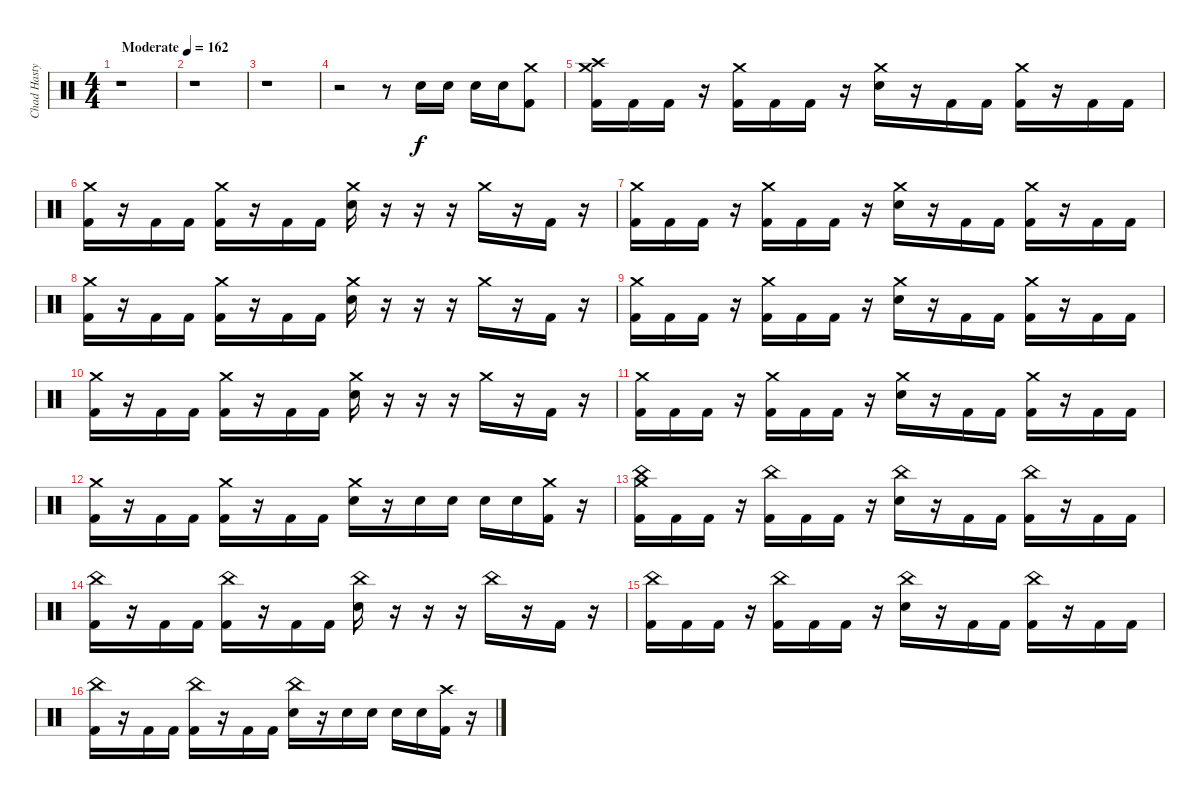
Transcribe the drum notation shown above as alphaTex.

\track ("Chad Hasty" "Chad Hasty") {instrument percussion}
\staff {score}
\articulation defaults
\ts (4 4)
\tempo (162 "Moderate")
\clef neutral
\ks c
r.1{dy f} |
r.1 |
r.1 |
r.2 r.8 "Snare (hit) 2".16 "Snare (hit) 2".16 "Snare (hit) 2".16 "Snare (hit) 2".16 ("Crash medium (hit)" "Kick (hit) 2").8 |
("Crash medium (hit)" "Crash high (hit)" "Kick (hit) 2").16 "Kick (hit) 2".16 "Kick (hit) 2".16 r.16 ("Crash medium (hit)" "Kick (hit) 2").16 "Kick (hit) 2".16 "Kick (hit) 2".16 r.16 ("Crash medium (hit)" "Snare (hit) 2").16 r.16 "Kick (hit) 2".16 "Kick (hit) 2".16 ("Crash medium (hit)" "Kick (hit) 2").16 r.16 "Kick (hit) 2".16 "Kick (hit) 2".16 |
("Crash medium (hit)" "Kick (hit) 2").16 r.16 "Kick (hit) 2".16 "Kick (hit) 2".16 ("Crash medium (hit)" "Kick (hit) 2").16 r.16 "Kick (hit) 2".16 "Kick (hit) 2".16 ("Crash medium (hit)" "Snare (hit) 2").16 r.16 r.16 r.16 "Crash medium (hit)".16 r.16 "Kick (hit) 2".16 r.16 |
("Crash medium (hit)" "Kick (hit) 2").16 "Kick (hit) 2".16 "Kick (hit) 2".16 r.16 ("Crash medium (hit)" "Kick (hit) 2").16 "Kick (hit) 2".16 "Kick (hit) 2".16 r.16 ("Crash medium (hit)" "Snare (hit) 2").16 r.16 "Kick (hit) 2".16 "Kick (hit) 2".16 ("Crash medium (hit)" "Kick (hit) 2").16 r.16 "Kick (hit) 2".16 "Kick (hit) 2".16 |
("Crash medium (hit)" "Kick (hit) 2").16 r.16 "Kick (hit) 2".16 "Kick (hit) 2".16 ("Crash medium (hit)" "Kick (hit) 2").16 r.16 "Kick (hit) 2".16 "Kick (hit) 2".16 ("Crash medium (hit)" "Snare (hit) 2").16 r.16 r.16 r.16 "Crash medium (hit)".16 r.16 "Kick (hit) 2".16 r.16 |
("Crash medium (hit)" "Kick (hit) 2").16 "Kick (hit) 2".16 "Kick (hit) 2".16 r.16 ("Crash medium (hit)" "Kick (hit) 2").16 "Kick (hit) 2".16 "Kick (hit) 2".16 r.16 ("Crash medium (hit)" "Snare (hit) 2").16 r.16 "Kick (hit) 2".16 "Kick (hit) 2".16 ("Crash medium (hit)" "Kick (hit) 2").16 r.16 "Kick (hit) 2".16 "Kick (hit) 2".16 |
("Crash medium (hit)" "Kick (hit) 2").16 r.16 "Kick (hit) 2".16 "Kick (hit) 2".16 ("Crash medium (hit)" "Kick (hit) 2").16 r.16 "Kick (hit) 2".16 "Kick (hit) 2".16 ("Crash medium (hit)" "Snare (hit) 2").16 r.16 r.16 r.16 "Crash medium (hit)".16 r.16 "Kick (hit) 2".16 r.16 |
("Crash medium (hit)" "Kick (hit) 2").16 "Kick (hit) 2".16 "Kick (hit) 2".16 r.16 ("Crash medium (hit)" "Kick (hit) 2").16 "Kick (hit) 2".16 "Kick (hit) 2".16 r.16 ("Crash medium (hit)" "Snare (hit) 2").16 r.16 "Kick (hit) 2".16 "Kick (hit) 2".16 ("Crash medium (hit)" "Kick (hit) 2").16 r.16 "Kick (hit) 2".16 "Kick (hit) 2".16 |
("Crash medium (hit)" "Kick (hit) 2").16 r.16 "Kick (hit) 2".16 "Kick (hit) 2".16 ("Crash medium (hit)" "Kick (hit) 2").16 r.16 "Kick (hit) 2".16 "Kick (hit) 2".16 ("Crash medium (hit)" "Snare (hit) 2").16 r.16 "Snare (hit) 2".16 "Snare (hit) 2".16 "Snare (hit) 2".16 "Snare (hit) 2".16 ("Crash medium (hit)" "Kick (hit) 2").16 r.16 |
("Crash medium (hit)" "China (hit)" "Kick (hit) 2").16 "Kick (hit) 2".16 "Kick (hit) 2".16 r.16 ("China (hit)" "Kick (hit) 2").16 "Kick (hit) 2".16 "Kick (hit) 2".16 r.16 ("China (hit)" "Snare (hit) 2").16 r.16 "Kick (hit) 2".16 "Kick (hit) 2".16 ("China (hit)" "Kick (hit) 2").16 r.16 "Kick (hit) 2".16 "Kick (hit) 2".16 |
("China (hit)" "Kick (hit) 2").16 r.16 "Kick (hit) 2".16 "Kick (hit) 2".16 ("China (hit)" "Kick (hit) 2").16 r.16 "Kick (hit) 2".16 "Kick (hit) 2".16 ("China (hit)" "Snare (hit) 2").16 r.16 r.16 r.16 "China (hit)".16 r.16 "Kick (hit) 2".16 r.16 |
("China (hit)" "Kick (hit) 2").16 "Kick (hit) 2".16 "Kick (hit) 2".16 r.16 ("China (hit)" "Kick (hit) 2").16 "Kick (hit) 2".16 "Kick (hit) 2".16 r.16 ("China (hit)" "Snare (hit) 2").16 r.16 "Kick (hit) 2".16 "Kick (hit) 2".16 ("China (hit)" "Kick (hit) 2").16 r.16 "Kick (hit) 2".16 "Kick (hit) 2".16 |
("China (hit)" "Kick (hit) 2").16 r.16 "Kick (hit) 2".16 "Kick (hit) 2".16 ("China (hit)" "Kick (hit) 2").16 r.16 "Kick (hit) 2".16 "Kick (hit) 2".16 ("China (hit)" "Snare (hit) 2").16 r.16 "Snare (hit) 2".16 "Snare (hit) 2".16 "Snare (hit) 2".16 "Snare (hit) 2".16 ("Crash high (hit)" "Kick (hit) 2").16 r.16
